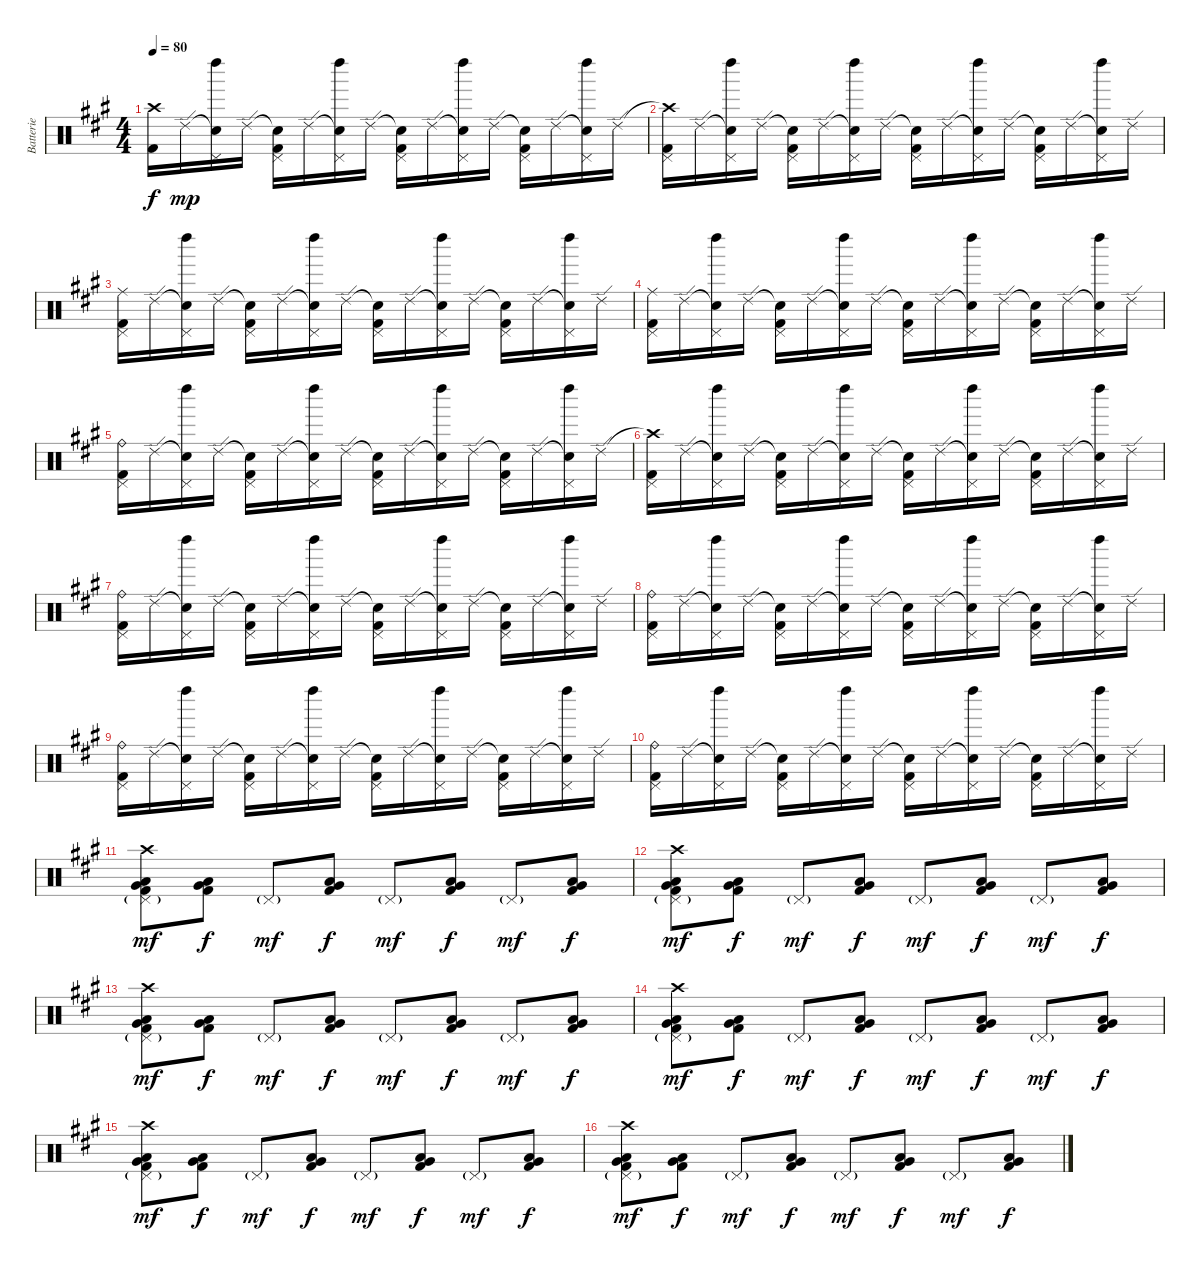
\track ("Batterie" "Batterie") {instrument percussion}
\staff {score}
\articulation defaults
\ts (4 4)
\tempo 80
\clef neutral
\ks a
("Crash high (hit)" "Kick (hit) 2").16{dy f} "Ride (edge) 2".16{dy mp} ("Snare (hit)"{t} "Pedal Hi-Hat (hit)" "Left Maraca (hit)").16 "Ride (edge) 2".16 ("Snare (hit)"{t} "Pedal Hi-Hat (hit)" "Kick (hit) 2").16 "Ride (edge) 2".16 ("Snare (hit)"{t} "Pedal Hi-Hat (hit)" "Left Maraca (hit)").16 "Ride (edge) 2".16 ("Snare (hit)"{t} "Pedal Hi-Hat (hit)" "Kick (hit) 2").16 "Ride (edge) 2".16 ("Snare (hit)"{t} "Pedal Hi-Hat (hit)" "Left Maraca (hit)").16 "Ride (edge) 2".16 ("Snare (hit)"{t} "Pedal Hi-Hat (hit)" "Kick (hit) 2").16 "Ride (edge) 2".16 ("Snare (hit)"{t} "Pedal Hi-Hat (hit)" "Left Maraca (hit)").16 "Ride (edge) 2".16 |
("Crash high (hit)"{t} "Pedal Hi-Hat (hit)" "Kick (hit) 2").16 "Ride (edge) 2".16 ("Snare (hit)"{t} "Pedal Hi-Hat (hit)" "Left Maraca (hit)").16 "Ride (edge) 2".16 ("Snare (hit)"{t} "Pedal Hi-Hat (hit)" "Kick (hit) 2").16 "Ride (edge) 2".16 ("Snare (hit)"{t} "Pedal Hi-Hat (hit)" "Left Maraca (hit)").16 "Ride (edge) 2".16 ("Snare (hit)"{t} "Pedal Hi-Hat (hit)" "Kick (hit) 2").16 "Ride (edge) 2".16 ("Snare (hit)"{t} "Pedal Hi-Hat (hit)" "Left Maraca (hit)").16 "Ride (edge) 2".16 ("Snare (hit)"{t} "Pedal Hi-Hat (hit)" "Kick (hit) 2").16 "Ride (edge) 2".16 ("Snare (hit)"{t} "Pedal Hi-Hat (hit)" "Left Maraca (hit)").16 "Ride (edge) 2".16 |
("Ride (middle)" "Pedal Hi-Hat (hit)" "Kick (hit) 2").16 "Ride (edge) 2".16 ("Snare (hit)"{t} "Pedal Hi-Hat (hit)" "Left Maraca (hit)").16 "Ride (edge) 2".16 ("Snare (hit)"{t} "Pedal Hi-Hat (hit)" "Kick (hit) 2").16 "Ride (edge) 2".16 ("Snare (hit)"{t} "Pedal Hi-Hat (hit)" "Left Maraca (hit)").16 "Ride (edge) 2".16 ("Snare (hit)"{t} "Pedal Hi-Hat (hit)" "Kick (hit) 2").16 "Ride (edge) 2".16 ("Snare (hit)"{t} "Pedal Hi-Hat (hit)" "Left Maraca (hit)").16 "Ride (edge) 2".16 ("Snare (hit)"{t} "Pedal Hi-Hat (hit)" "Kick (hit) 2").16 "Ride (edge) 2".16 ("Snare (hit)"{t} "Pedal Hi-Hat (hit)" "Left Maraca (hit)").16 "Ride (edge) 2".16 |
("Ride (middle)" "Pedal Hi-Hat (hit)" "Kick (hit) 2").16 "Ride (edge) 2".16 ("Snare (hit)"{t} "Pedal Hi-Hat (hit)" "Left Maraca (hit)").16 "Ride (edge) 2".16 ("Snare (hit)"{t} "Pedal Hi-Hat (hit)" "Kick (hit) 2").16 "Ride (edge) 2".16 ("Snare (hit)"{t} "Pedal Hi-Hat (hit)" "Left Maraca (hit)").16 "Ride (edge) 2".16 ("Snare (hit)"{t} "Pedal Hi-Hat (hit)" "Kick (hit) 2").16 "Ride (edge) 2".16 ("Snare (hit)"{t} "Pedal Hi-Hat (hit)" "Left Maraca (hit)").16 "Ride (edge) 2".16 ("Snare (hit)"{t} "Pedal Hi-Hat (hit)" "Kick (hit) 2").16 "Ride (edge) 2".16 ("Snare (hit)"{t} "Pedal Hi-Hat (hit)" "Left Maraca (hit)").16 "Ride (edge) 2".16 |
("Ride (bell)" "Pedal Hi-Hat (hit)" "Kick (hit) 2").16 "Ride (edge) 2".16 ("Snare (hit)"{t} "Pedal Hi-Hat (hit)" "Left Maraca (hit)").16 "Ride (edge) 2".16 ("Snare (hit)"{t} "Pedal Hi-Hat (hit)" "Kick (hit) 2").16 "Ride (edge) 2".16 ("Snare (hit)"{t} "Pedal Hi-Hat (hit)" "Left Maraca (hit)").16 "Ride (edge) 2".16 ("Snare (hit)"{t} "Pedal Hi-Hat (hit)" "Kick (hit) 2").16 "Ride (edge) 2".16 ("Snare (hit)"{t} "Pedal Hi-Hat (hit)" "Left Maraca (hit)").16 "Ride (edge) 2".16 ("Snare (hit)"{t} "Pedal Hi-Hat (hit)" "Kick (hit) 2").16 "Ride (edge) 2".16 ("Snare (hit)"{t} "Pedal Hi-Hat (hit)" "Left Maraca (hit)").16 "Ride (edge) 2".16 |
("Crash high (hit)"{t} "Pedal Hi-Hat (hit)" "Kick (hit) 2").16 "Ride (edge) 2".16 ("Snare (hit)"{t} "Pedal Hi-Hat (hit)" "Left Maraca (hit)").16 "Ride (edge) 2".16 ("Snare (hit)"{t} "Pedal Hi-Hat (hit)" "Kick (hit) 2").16 "Ride (edge) 2".16 ("Snare (hit)"{t} "Pedal Hi-Hat (hit)" "Left Maraca (hit)").16 "Ride (edge) 2".16 ("Snare (hit)"{t} "Pedal Hi-Hat (hit)" "Kick (hit) 2").16 "Ride (edge) 2".16 ("Snare (hit)"{t} "Pedal Hi-Hat (hit)" "Left Maraca (hit)").16 "Ride (edge) 2".16 ("Snare (hit)"{t} "Pedal Hi-Hat (hit)" "Kick (hit) 2").16 "Ride (edge) 2".16 ("Snare (hit)"{t} "Pedal Hi-Hat (hit)" "Left Maraca (hit)").16 "Ride (edge) 2".16 |
("Ride (bell)" "Pedal Hi-Hat (hit)" "Kick (hit) 2").16 "Ride (edge) 2".16 ("Snare (hit)"{t} "Pedal Hi-Hat (hit)" "Left Maraca (hit)").16 "Ride (edge) 2".16 ("Snare (hit)"{t} "Pedal Hi-Hat (hit)" "Kick (hit) 2").16 "Ride (edge) 2".16 ("Snare (hit)"{t} "Pedal Hi-Hat (hit)" "Left Maraca (hit)").16 "Ride (edge) 2".16 ("Snare (hit)"{t} "Pedal Hi-Hat (hit)" "Kick (hit) 2").16 "Ride (edge) 2".16 ("Snare (hit)"{t} "Pedal Hi-Hat (hit)" "Left Maraca (hit)").16 "Ride (edge) 2".16 ("Snare (hit)"{t} "Pedal Hi-Hat (hit)" "Kick (hit) 2").16 "Ride (edge) 2".16 ("Snare (hit)"{t} "Pedal Hi-Hat (hit)" "Left Maraca (hit)").16 "Ride (edge) 2".16 |
("Ride (bell)" "Pedal Hi-Hat (hit)" "Kick (hit) 2").16 "Ride (edge) 2".16 ("Snare (hit)"{t} "Pedal Hi-Hat (hit)" "Left Maraca (hit)").16 "Ride (edge) 2".16 ("Snare (hit)"{t} "Pedal Hi-Hat (hit)" "Kick (hit) 2").16 "Ride (edge) 2".16 ("Snare (hit)"{t} "Pedal Hi-Hat (hit)" "Left Maraca (hit)").16 "Ride (edge) 2".16 ("Snare (hit)"{t} "Pedal Hi-Hat (hit)" "Kick (hit) 2").16 "Ride (edge) 2".16 ("Snare (hit)"{t} "Pedal Hi-Hat (hit)" "Left Maraca (hit)").16 "Ride (edge) 2".16 ("Snare (hit)"{t} "Pedal Hi-Hat (hit)" "Kick (hit) 2").16 "Ride (edge) 2".16 ("Snare (hit)"{t} "Pedal Hi-Hat (hit)" "Left Maraca (hit)").16 "Ride (edge) 2".16 |
("Ride (bell)" "Pedal Hi-Hat (hit)" "Kick (hit) 2").16 "Ride (edge) 2".16 ("Snare (hit)"{t} "Pedal Hi-Hat (hit)" "Left Maraca (hit)").16 "Ride (edge) 2".16 ("Snare (hit)"{t} "Pedal Hi-Hat (hit)" "Kick (hit) 2").16 "Ride (edge) 2".16 ("Snare (hit)"{t} "Pedal Hi-Hat (hit)" "Left Maraca (hit)").16 "Ride (edge) 2".16 ("Snare (hit)"{t} "Pedal Hi-Hat (hit)" "Kick (hit) 2").16 "Ride (edge) 2".16 ("Snare (hit)"{t} "Pedal Hi-Hat (hit)" "Left Maraca (hit)").16 "Ride (edge) 2".16 ("Snare (hit)"{t} "Pedal Hi-Hat (hit)" "Kick (hit) 2").16 "Ride (edge) 2".16 ("Snare (hit)"{t} "Pedal Hi-Hat (hit)" "Left Maraca (hit)").16 "Ride (edge) 2".16 |
("Ride (bell)" "Pedal Hi-Hat (hit)" "Kick (hit) 2").16 "Ride (edge) 2".16 ("Snare (hit)"{t} "Pedal Hi-Hat (hit)" "Left Maraca (hit)").16 "Ride (edge) 2".16 ("Snare (hit)"{t} "Pedal Hi-Hat (hit)" "Kick (hit) 2").16 "Ride (edge) 2".16 ("Snare (hit)"{t} "Pedal Hi-Hat (hit)" "Left Maraca (hit)").16 "Ride (edge) 2".16 ("Snare (hit)"{t} "Pedal Hi-Hat (hit)" "Kick (hit) 2").16 "Ride (edge) 2".16 ("Snare (hit)"{t} "Pedal Hi-Hat (hit)" "Left Maraca (hit)").16 "Ride (edge) 2".16 ("Snare (hit)"{t} "Pedal Hi-Hat (hit)" "Kick (hit) 2").16 "Ride (edge) 2".16 ("Snare (hit)"{t} "Pedal Hi-Hat (hit)" "Left Maraca (hit)").16 "Ride (edge) 2".16 |
("Crash high (hit)" "Pedal Hi-Hat (hit)"{g} "Low Floor Tom (hit)" "Very Low Tom (hit)" "Kick (hit) 2").8{dy mf} ("Low Floor Tom (hit)" "Very Low Tom (hit)" "Kick (hit) 2").8{dy f} "Pedal Hi-Hat (hit)"{g}.8{dy mf} ("Low Floor Tom (hit)" "Very Low Tom (hit)" "Kick (hit) 2").8{dy f} "Pedal Hi-Hat (hit)"{g}.8{dy mf} ("Low Floor Tom (hit)" "Very Low Tom (hit)" "Kick (hit) 2").8{dy f} "Pedal Hi-Hat (hit)"{g}.8{dy mf} ("Low Floor Tom (hit)" "Very Low Tom (hit)" "Kick (hit) 2").8{dy f} |
("Crash high (hit)" "Pedal Hi-Hat (hit)"{g} "Low Floor Tom (hit)" "Very Low Tom (hit)" "Kick (hit) 2").8{dy mf} ("Low Floor Tom (hit)" "Very Low Tom (hit)" "Kick (hit) 2").8{dy f} "Pedal Hi-Hat (hit)"{g}.8{dy mf} ("Low Floor Tom (hit)" "Very Low Tom (hit)" "Kick (hit) 2").8{dy f} "Pedal Hi-Hat (hit)"{g}.8{dy mf} ("Low Floor Tom (hit)" "Very Low Tom (hit)" "Kick (hit) 2").8{dy f} "Pedal Hi-Hat (hit)"{g}.8{dy mf} ("Low Floor Tom (hit)" "Very Low Tom (hit)" "Kick (hit) 2").8{dy f} |
("Crash high (hit)" "Pedal Hi-Hat (hit)"{g} "Low Floor Tom (hit)" "Very Low Tom (hit)" "Kick (hit) 2").8{dy mf} ("Low Floor Tom (hit)" "Very Low Tom (hit)" "Kick (hit) 2").8{dy f} "Pedal Hi-Hat (hit)"{g}.8{dy mf} ("Low Floor Tom (hit)" "Very Low Tom (hit)" "Kick (hit) 2").8{dy f} "Pedal Hi-Hat (hit)"{g}.8{dy mf} ("Low Floor Tom (hit)" "Very Low Tom (hit)" "Kick (hit) 2").8{dy f} "Pedal Hi-Hat (hit)"{g}.8{dy mf} ("Low Floor Tom (hit)" "Very Low Tom (hit)" "Kick (hit) 2").8{dy f} |
("Crash high (hit)" "Pedal Hi-Hat (hit)"{g} "Low Floor Tom (hit)" "Very Low Tom (hit)" "Kick (hit) 2").8{dy mf} ("Low Floor Tom (hit)" "Very Low Tom (hit)" "Kick (hit) 2").8{dy f} "Pedal Hi-Hat (hit)"{g}.8{dy mf} ("Low Floor Tom (hit)" "Very Low Tom (hit)" "Kick (hit) 2").8{dy f} "Pedal Hi-Hat (hit)"{g}.8{dy mf} ("Low Floor Tom (hit)" "Very Low Tom (hit)" "Kick (hit) 2").8{dy f} "Pedal Hi-Hat (hit)"{g}.8{dy mf} ("Low Floor Tom (hit)" "Very Low Tom (hit)" "Kick (hit) 2").8{dy f} |
("Crash high (hit)" "Pedal Hi-Hat (hit)"{g} "Low Floor Tom (hit)" "Very Low Tom (hit)" "Kick (hit) 2").8{dy mf} ("Low Floor Tom (hit)" "Very Low Tom (hit)" "Kick (hit) 2").8{dy f} "Pedal Hi-Hat (hit)"{g}.8{dy mf} ("Low Floor Tom (hit)" "Very Low Tom (hit)" "Kick (hit) 2").8{dy f} "Pedal Hi-Hat (hit)"{g}.8{dy mf} ("Low Floor Tom (hit)" "Very Low Tom (hit)" "Kick (hit) 2").8{dy f} "Pedal Hi-Hat (hit)"{g}.8{dy mf} ("Low Floor Tom (hit)" "Very Low Tom (hit)" "Kick (hit) 2").8{dy f} |
("Crash high (hit)" "Pedal Hi-Hat (hit)"{g} "Low Floor Tom (hit)" "Very Low Tom (hit)" "Kick (hit) 2").8{dy mf} ("Low Floor Tom (hit)" "Very Low Tom (hit)" "Kick (hit) 2").8{dy f} "Pedal Hi-Hat (hit)"{g}.8{dy mf} ("Low Floor Tom (hit)" "Very Low Tom (hit)" "Kick (hit) 2").8{dy f} "Pedal Hi-Hat (hit)"{g}.8{dy mf} ("Low Floor Tom (hit)" "Very Low Tom (hit)" "Kick (hit) 2").8{dy f} "Pedal Hi-Hat (hit)"{g}.8{dy mf} ("Low Floor Tom (hit)" "Very Low Tom (hit)" "Kick (hit) 2").8{dy f}
